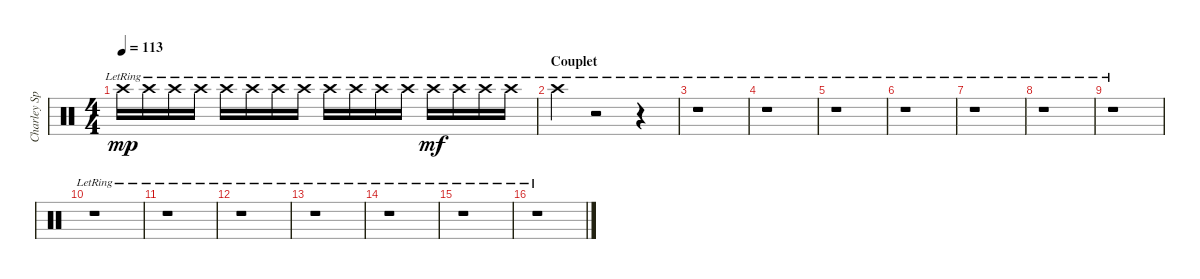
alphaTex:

\track ("Charley Spec." "Charley Sp") {instrument percussion}
\staff {score}
\articulation defaults
\ts (4 4)
\tempo 113
\clef neutral
\ks c "Crash high (hit)"{lr}.16{dy mp} "Crash high (hit)"{lr}.16 "Crash high (hit)"{lr}.16 "Crash high (hit)"{lr}.16 "Crash high (hit)"{lr}.16 "Crash high (hit)"{lr}.16 "Crash high (hit)"{lr}.16 "Crash high (hit)"{lr}.16 "Crash high (hit)"{lr}.16 "Crash high (hit)"{lr}.16 "Crash high (hit)"{lr}.16 "Crash high (hit)"{lr}.16 "Crash high (hit)"{lr}.16{dy mf} "Crash high (hit)"{lr}.16 "Crash high (hit)"{lr}.16 "Crash high (hit)"{lr}.16
|
\section ("" "Couplet")
"Crash high (hit)"{lr}.4 r.2 r.4 |
r.1 |
r.1 |
r.1 |
r.1 |
r.1 |
r.1 |
r.1 |
r.1 |
r.1 |
r.1 |
r.1 |
r.1 |
r.1 |
r.1
